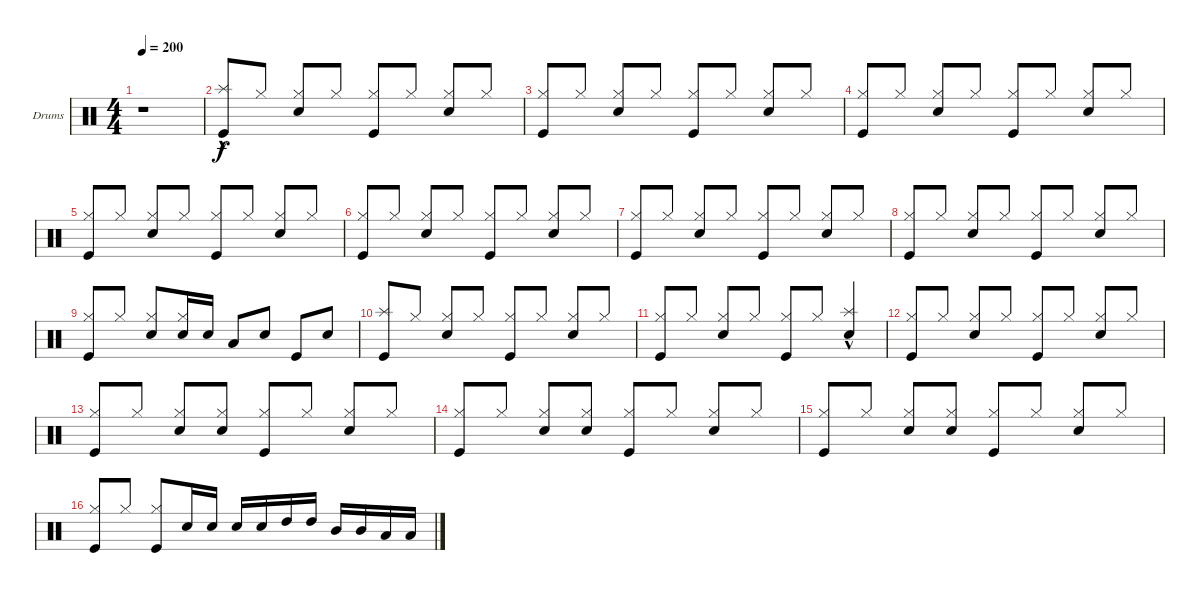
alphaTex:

\defaultSystemsLayout 4
\bracketExtendMode groupsimilarinstruments
\firstSystemTrackNameOrientation horizontal
\otherSystemsTrackNameOrientation horizontal
\track ("Drumkit" "Drums") {instrument percussion}
\staff {score}
\articulation defaults
\ts (4 4)
\tempo 200
\clef neutral
\ks c
r.1{dy f} |
("Kick (hit)" "Splash (hit)"{hac}).8 "Hi-Hat (closed)".8 ("Hi-Hat (closed)" "Snare (hit) 2").8{beam invert} "Hi-Hat (closed)".8 ("Hi-Hat (closed)" "Kick (hit)").8{beam invert} "Hi-Hat (closed)".8 ("Hi-Hat (closed)" "Snare (hit) 2").8{beam invert} "Hi-Hat (closed)".8 |
("Hi-Hat (closed)" "Kick (hit)").8{beam invert} "Hi-Hat (closed)".8 ("Hi-Hat (closed)" "Snare (hit) 2").8{beam invert} "Hi-Hat (closed)".8 ("Hi-Hat (closed)" "Kick (hit)").8{beam invert} "Hi-Hat (closed)".8 ("Hi-Hat (closed)" "Snare (hit) 2").8{beam invert} "Hi-Hat (closed)".8 |
("Hi-Hat (closed)" "Kick (hit)").8{beam invert} "Hi-Hat (closed)".8 ("Hi-Hat (closed)" "Snare (hit) 2").8{beam invert} "Hi-Hat (closed)".8 ("Hi-Hat (closed)" "Kick (hit)").8{beam invert} "Hi-Hat (closed)".8 ("Hi-Hat (closed)" "Snare (hit) 2").8{beam invert} "Hi-Hat (closed)".8 |
("Hi-Hat (closed)" "Kick (hit)").8{beam invert} "Hi-Hat (closed)".8 ("Hi-Hat (closed)" "Snare (hit) 2").8{beam invert} "Hi-Hat (closed)".8 ("Hi-Hat (closed)" "Kick (hit)").8{beam invert} "Hi-Hat (closed)".8 ("Hi-Hat (closed)" "Snare (hit) 2").8{beam invert} "Hi-Hat (closed)".8 |
("Hi-Hat (closed)" "Kick (hit)").8{beam invert} "Hi-Hat (closed)".8 ("Hi-Hat (closed)" "Snare (hit) 2").8{beam invert} "Hi-Hat (closed)".8 ("Hi-Hat (closed)" "Kick (hit)").8{beam invert} "Hi-Hat (closed)".8 ("Hi-Hat (closed)" "Snare (hit) 2").8{beam invert} "Hi-Hat (closed)".8 |
("Hi-Hat (closed)" "Kick (hit)").8{beam invert} "Hi-Hat (closed)".8 ("Hi-Hat (closed)" "Snare (hit) 2").8{beam invert} "Hi-Hat (closed)".8 ("Hi-Hat (closed)" "Kick (hit)").8{beam invert} "Hi-Hat (closed)".8 ("Hi-Hat (closed)" "Snare (hit) 2").8{beam invert} "Hi-Hat (closed)".8 |
("Hi-Hat (closed)" "Kick (hit)").8{beam invert} "Hi-Hat (closed)".8 ("Hi-Hat (closed)" "Snare (hit) 2").8{beam invert} "Hi-Hat (closed)".8 ("Hi-Hat (closed)" "Kick (hit)").8{beam invert} "Hi-Hat (closed)".8 ("Hi-Hat (closed)" "Snare (hit) 2").8{beam invert} "Hi-Hat (closed)".8 |
("Hi-Hat (closed)" "Kick (hit)").8{beam invert} "Hi-Hat (closed)".8 ("Hi-Hat (closed)" "Snare (hit) 2").8{beam invert} ("Hi-Hat (closed)" "Snare (hit) 2").16 "Snare (hit) 2".16 "Low Tom (hit)".8{beam invert} "Snare (hit) 2".8 "Kick (hit)".8 "Snare (hit) 2".8 |
("Kick (hit)" "Splash (hit)").8 "Hi-Hat (closed)".8 ("Hi-Hat (closed)" "Snare (hit) 2").8{beam invert} "Hi-Hat (closed)".8 ("Hi-Hat (closed)" "Kick (hit)").8{beam invert} "Hi-Hat (closed)".8 ("Hi-Hat (closed)" "Snare (hit) 2").8{beam invert} "Hi-Hat (closed)".8 |
("Hi-Hat (closed)" "Kick (hit)").8{beam invert} "Hi-Hat (closed)".8 ("Hi-Hat (closed)" "Snare (hit) 2").8{beam invert} "Hi-Hat (closed)".8 ("Hi-Hat (closed)" "Kick (hit)").8{beam invert} "Hi-Hat (closed)".8 ("Snare (hit) 2" "Splash (hit)"{hac}).4{beam invert} |
("Hi-Hat (closed)" "Kick (hit)").8{beam invert} "Hi-Hat (closed)".8 ("Hi-Hat (closed)" "Snare (hit) 2").8{beam invert} "Hi-Hat (closed)".8 ("Hi-Hat (closed)" "Kick (hit)").8{beam invert} "Hi-Hat (closed)".8 ("Hi-Hat (closed)" "Snare (hit) 2").8{beam invert} "Hi-Hat (closed)".8 |
("Hi-Hat (closed)" "Kick (hit)").8{beam invert} "Hi-Hat (closed)".8 ("Hi-Hat (closed)" "Snare (hit) 2").8{beam invert} ("Hi-Hat (closed)" "Snare (hit) 2").8 ("Hi-Hat (closed)" "Kick (hit)").8{beam invert} "Hi-Hat (closed)".8 ("Hi-Hat (closed)" "Snare (hit) 2").8{beam invert} "Hi-Hat (closed)".8 |
("Hi-Hat (closed)" "Kick (hit)").8{beam invert} "Hi-Hat (closed)".8 ("Hi-Hat (closed)" "Snare (hit) 2").8{beam invert} ("Hi-Hat (closed)" "Snare (hit) 2").8 ("Hi-Hat (closed)" "Kick (hit)").8{beam invert} "Hi-Hat (closed)".8 ("Hi-Hat (closed)" "Snare (hit) 2").8{beam invert} "Hi-Hat (closed)".8 |
("Hi-Hat (closed)" "Kick (hit)").8{beam invert} "Hi-Hat (closed)".8 ("Hi-Hat (closed)" "Snare (hit) 2").8{beam invert} ("Hi-Hat (closed)" "Snare (hit) 2").8 ("Hi-Hat (closed)" "Kick (hit)").8{beam invert} "Hi-Hat (closed)".8 ("Hi-Hat (closed)" "Snare (hit) 2").8{beam invert} "Hi-Hat (closed)".8 |
("Hi-Hat (closed)" "Kick (hit)").8{beam invert} "Hi-Hat (closed)".8 ("Hi-Hat (closed)" "Kick (hit)").8{beam invert} "Snare (hit) 2".16 "Snare (hit) 2".16{beam invert} "Snare (hit) 2".16{beam invert} "Snare (hit) 2".16 "High Tom (hit)".16 "High Tom (hit)".16 "Mid Tom (hit)".16 "Mid Tom (hit)".16 "Low Tom (hit)".16 "Low Tom (hit)".16
